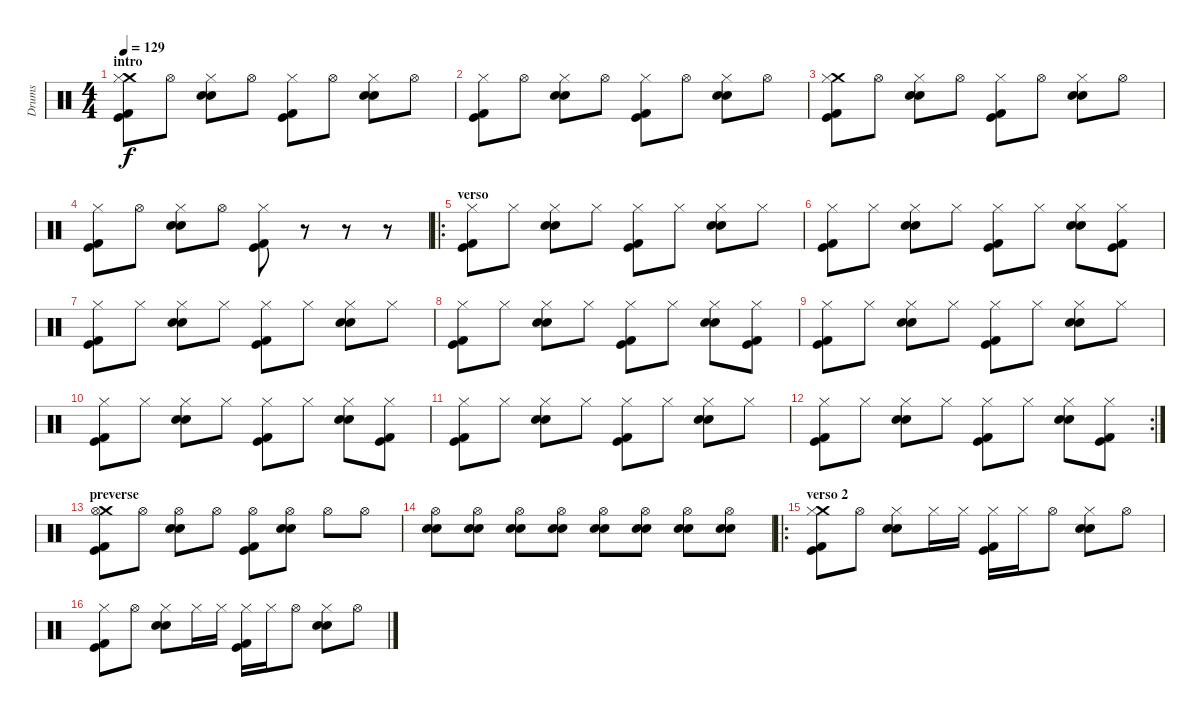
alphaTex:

\track ("Drums" "Drums") {instrument percussion}
\staff {score}
\articulation defaults
\ts (4 4)
\section ("" "intro")
\tempo 129
\clef neutral
\ks c
("Crash medium (hit)" "Hi-Hat (closed)" "Kick (hit) 2" "Kick (hit)").8{dy f} "Hi-Hat (open)".8 ("Hi-Hat (closed)" "Snare (hit) 2" "Snare (hit) 2").8 "Hi-Hat (open)".8 ("Hi-Hat (closed)" "Kick (hit) 2" "Kick (hit)").8 "Hi-Hat (open)".8 ("Hi-Hat (closed)" "Snare (hit) 2" "Snare (hit) 2").8 "Hi-Hat (open)".8 |
("Hi-Hat (closed)" "Kick (hit) 2" "Kick (hit)").8 "Hi-Hat (open)".8 ("Hi-Hat (closed)" "Snare (hit) 2" "Snare (hit) 2").8 "Hi-Hat (open)".8 ("Hi-Hat (closed)" "Kick (hit) 2" "Kick (hit)").8 "Hi-Hat (open)".8 ("Hi-Hat (closed)" "Snare (hit) 2" "Snare (hit) 2").8 "Hi-Hat (open)".8 |
("Crash medium (hit)" "Hi-Hat (closed)" "Kick (hit) 2" "Kick (hit)").8 "Hi-Hat (open)".8 ("Hi-Hat (closed)" "Snare (hit) 2" "Snare (hit) 2").8 "Hi-Hat (open)".8 ("Hi-Hat (closed)" "Kick (hit) 2" "Kick (hit)").8 "Hi-Hat (open)".8 ("Hi-Hat (closed)" "Snare (hit) 2" "Snare (hit) 2").8 "Hi-Hat (open)".8 |
("Hi-Hat (closed)" "Kick (hit) 2" "Kick (hit)").8 "Hi-Hat (open)".8 ("Hi-Hat (closed)" "Snare (hit) 2" "Snare (hit) 2").8 "Hi-Hat (open)".8 ("Hi-Hat (closed)" "Kick (hit) 2" "Kick (hit)").8 r.8 r.8 r.8 |
\ro
\section ("" "verso")
("Hi-Hat (closed)" "Kick (hit) 2" "Kick (hit)").8 "Hi-Hat (closed)".8 ("Hi-Hat (closed)" "Snare (hit) 2" "Snare (hit) 2").8 "Hi-Hat (closed)".8 ("Hi-Hat (closed)" "Kick (hit)" "Kick (hit) 2").8 "Hi-Hat (closed)".8 ("Hi-Hat (closed)" "Snare (hit) 2" "Snare (hit) 2").8 "Hi-Hat (closed)".8 |
("Hi-Hat (closed)" "Kick (hit) 2" "Kick (hit)").8 "Hi-Hat (closed)".8 ("Hi-Hat (closed)" "Snare (hit) 2" "Snare (hit) 2").8 "Hi-Hat (closed)".8 ("Hi-Hat (closed)" "Kick (hit)" "Kick (hit) 2").8 "Hi-Hat (closed)".8 ("Hi-Hat (closed)" "Snare (hit) 2" "Snare (hit) 2").8 ("Hi-Hat (closed)" "Kick (hit) 2" "Kick (hit)").8 |
("Hi-Hat (closed)" "Kick (hit) 2" "Kick (hit)").8 "Hi-Hat (closed)".8 ("Hi-Hat (closed)" "Snare (hit) 2" "Snare (hit) 2").8 "Hi-Hat (closed)".8 ("Hi-Hat (closed)" "Kick (hit)" "Kick (hit) 2").8 "Hi-Hat (closed)".8 ("Hi-Hat (closed)" "Snare (hit) 2" "Snare (hit) 2").8 "Hi-Hat (closed)".8 |
("Hi-Hat (closed)" "Kick (hit) 2" "Kick (hit)").8 "Hi-Hat (closed)".8 ("Hi-Hat (closed)" "Snare (hit) 2" "Snare (hit) 2").8 "Hi-Hat (closed)".8 ("Hi-Hat (closed)" "Kick (hit)" "Kick (hit) 2").8 "Hi-Hat (closed)".8 ("Hi-Hat (closed)" "Snare (hit) 2" "Snare (hit) 2").8 ("Hi-Hat (closed)" "Kick (hit) 2" "Kick (hit)").8 |
("Hi-Hat (closed)" "Kick (hit) 2" "Kick (hit)").8 "Hi-Hat (closed)".8 ("Hi-Hat (closed)" "Snare (hit) 2" "Snare (hit) 2").8 "Hi-Hat (closed)".8 ("Hi-Hat (closed)" "Kick (hit)" "Kick (hit) 2").8 "Hi-Hat (closed)".8 ("Hi-Hat (closed)" "Snare (hit) 2" "Snare (hit) 2").8 "Hi-Hat (closed)".8 |
("Hi-Hat (closed)" "Kick (hit) 2" "Kick (hit)").8 "Hi-Hat (closed)".8 ("Hi-Hat (closed)" "Snare (hit) 2" "Snare (hit) 2").8 "Hi-Hat (closed)".8 ("Hi-Hat (closed)" "Kick (hit)" "Kick (hit) 2").8 "Hi-Hat (closed)".8 ("Hi-Hat (closed)" "Snare (hit) 2" "Snare (hit) 2").8 ("Hi-Hat (closed)" "Kick (hit) 2" "Kick (hit)").8 |
("Hi-Hat (closed)" "Kick (hit) 2" "Kick (hit)").8 "Hi-Hat (closed)".8 ("Hi-Hat (closed)" "Snare (hit) 2" "Snare (hit) 2").8 "Hi-Hat (closed)".8 ("Hi-Hat (closed)" "Kick (hit)" "Kick (hit) 2").8 "Hi-Hat (closed)".8 ("Hi-Hat (closed)" "Snare (hit) 2" "Snare (hit) 2").8 "Hi-Hat (closed)".8 |
\rc 2
("Hi-Hat (closed)" "Kick (hit) 2" "Kick (hit)").8 "Hi-Hat (closed)".8 ("Hi-Hat (closed)" "Snare (hit) 2" "Snare (hit) 2").8 "Hi-Hat (closed)".8 ("Hi-Hat (closed)" "Kick (hit)" "Kick (hit) 2").8 "Hi-Hat (closed)".8 ("Hi-Hat (closed)" "Snare (hit) 2" "Snare (hit) 2").8 ("Hi-Hat (closed)" "Kick (hit) 2" "Kick (hit)").8 |
\section ("" "preverse")
("Crash medium (hit)" "Hi-Hat (open)" "Kick (hit) 2" "Kick (hit)").8 "Hi-Hat (open)".8 ("Hi-Hat (open)" "Snare (hit) 2" "Snare (hit) 2").8 "Hi-Hat (open)".8 ("Hi-Hat (open)" "Kick (hit) 2" "Kick (hit)").8 ("Hi-Hat (open)" "Snare (hit) 2" "Snare (hit) 2").8 "Hi-Hat (open)".8 "Hi-Hat (open)".8 |
("Hi-Hat (open)" "Snare (hit) 2" "Snare (hit) 2").8 ("Hi-Hat (open)" "Snare (hit) 2" "Snare (hit) 2").8 ("Hi-Hat (open)" "Snare (hit) 2" "Snare (hit) 2").8 ("Hi-Hat (open)" "Snare (hit) 2" "Snare (hit) 2").8 ("Hi-Hat (open)" "Snare (hit) 2" "Snare (hit) 2").8 ("Hi-Hat (open)" "Snare (hit) 2" "Snare (hit) 2").8 ("Hi-Hat (open)" "Snare (hit) 2" "Snare (hit) 2").8 ("Hi-Hat (open)" "Snare (hit) 2" "Snare (hit) 2").8 |
\ro
\section ("" "verso 2")
("Crash medium (hit)" "Hi-Hat (closed)" "Kick (hit) 2" "Kick (hit)").8 "Hi-Hat (open)".8 ("Hi-Hat (closed)" "Snare (hit) 2" "Snare (hit) 2").8 "Hi-Hat (closed)".16 "Hi-Hat (closed)".16 ("Hi-Hat (closed)" "Kick (hit)" "Kick (hit) 2").16 "Hi-Hat (closed)".16 "Hi-Hat (open)".8 ("Hi-Hat (closed)" "Snare (hit) 2" "Snare (hit) 2").8 "Hi-Hat (open)".8 |
("Hi-Hat (closed)" "Kick (hit) 2" "Kick (hit)").8 "Hi-Hat (open)".8 ("Hi-Hat (closed)" "Snare (hit) 2" "Snare (hit) 2").8 "Hi-Hat (closed)".16 "Hi-Hat (closed)".16 ("Hi-Hat (closed)" "Kick (hit)" "Kick (hit) 2").16 "Hi-Hat (closed)".16 "Hi-Hat (open)".8 ("Hi-Hat (closed)" "Snare (hit) 2" "Snare (hit) 2").8 "Hi-Hat (open)".8
